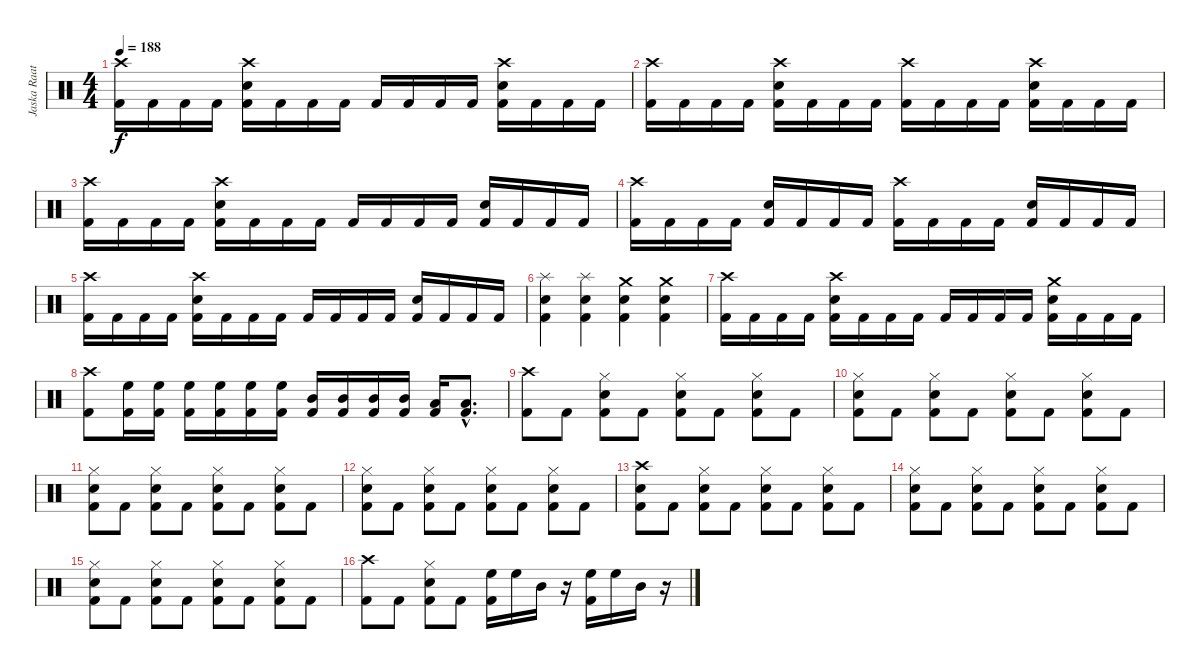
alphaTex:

\track ("Jaska Raatikainen" "Jaska Raat") {instrument percussion}
\staff {score}
\articulation defaults
\ts (4 4)
\tempo 188
\clef neutral
\ks c
("Crash high (hit)" "Kick (hit) 2").16{dy f} "Kick (hit) 2".16 "Kick (hit) 2".16 "Kick (hit) 2".16 ("Crash high (hit)" "Electric Snare (hit)" "Kick (hit) 2").16 "Kick (hit) 2".16 "Kick (hit) 2".16 "Kick (hit) 2".16 "Kick (hit) 2".16 "Kick (hit) 2".16 "Kick (hit) 2".16 "Kick (hit) 2".16 ("Crash high (hit)" "Electric Snare (hit)" "Kick (hit) 2").16 "Kick (hit) 2".16 "Kick (hit) 2".16 "Kick (hit) 2".16 |
("Crash high (hit)" "Kick (hit) 2").16 "Kick (hit) 2".16 "Kick (hit) 2".16 "Kick (hit) 2".16 ("Crash high (hit)" "Electric Snare (hit)" "Kick (hit) 2").16 "Kick (hit) 2".16 "Kick (hit) 2".16 "Kick (hit) 2".16 ("Crash high (hit)" "Kick (hit) 2").16 "Kick (hit) 2".16 "Kick (hit) 2".16 "Kick (hit) 2".16 ("Crash high (hit)" "Electric Snare (hit)" "Kick (hit) 2").16 "Kick (hit) 2".16 "Kick (hit) 2".16 "Kick (hit) 2".16 |
("Crash high (hit)" "Kick (hit) 2").16 "Kick (hit) 2".16 "Kick (hit) 2".16 "Kick (hit) 2".16 ("Crash high (hit)" "Electric Snare (hit)" "Kick (hit) 2").16 "Kick (hit) 2".16 "Kick (hit) 2".16 "Kick (hit) 2".16 "Kick (hit) 2".16 "Kick (hit) 2".16 "Kick (hit) 2".16 "Kick (hit) 2".16 ("Electric Snare (hit)" "Kick (hit) 2").16 "Kick (hit) 2".16 "Kick (hit) 2".16 "Kick (hit) 2".16 |
("Crash high (hit)" "Kick (hit) 2").16 "Kick (hit) 2".16 "Kick (hit) 2".16 "Kick (hit) 2".16 ("Electric Snare (hit)" "Kick (hit) 2").16 "Kick (hit) 2".16 "Kick (hit) 2".16 "Kick (hit) 2".16 ("Crash high (hit)" "Kick (hit) 2").16 "Kick (hit) 2".16 "Kick (hit) 2".16 "Kick (hit) 2".16 ("Electric Snare (hit)" "Kick (hit) 2").16 "Kick (hit) 2".16 "Kick (hit) 2".16 "Kick (hit) 2".16 |
("Crash high (hit)" "Kick (hit) 2").16 "Kick (hit) 2".16 "Kick (hit) 2".16 "Kick (hit) 2".16 ("Crash high (hit)" "Electric Snare (hit)" "Kick (hit) 2").16 "Kick (hit) 2".16 "Kick (hit) 2".16 "Kick (hit) 2".16 "Kick (hit) 2".16 "Kick (hit) 2".16 "Kick (hit) 2".16 "Kick (hit) 2".16 ("Electric Snare (hit)" "Kick (hit) 2").16 "Kick (hit) 2".16 "Kick (hit) 2".16 "Kick (hit) 2".16 |
("Splash (hit)" "Electric Snare (hit)" "Kick (hit) 2").4 ("Splash (hit)" "Electric Snare (hit)" "Kick (hit) 2").4 ("Crash medium (hit)" "Electric Snare (hit)" "Kick (hit) 2").4 ("Crash medium (hit)" "Electric Snare (hit)" "Kick (hit) 2").4 |
("Crash high (hit)" "Kick (hit) 2").16 "Kick (hit) 2".16 "Kick (hit) 2".16 "Kick (hit) 2".16 ("Crash high (hit)" "Electric Snare (hit)" "Kick (hit) 2").16 "Kick (hit) 2".16 "Kick (hit) 2".16 "Kick (hit) 2".16 "Kick (hit) 2".16 "Kick (hit) 2".16 "Kick (hit) 2".16 "Kick (hit) 2".16 ("Crash medium (hit)" "Electric Snare (hit)" "Kick (hit) 2").16 "Kick (hit) 2".16 "Kick (hit) 2".16 "Kick (hit) 2".16 |
("Crash high (hit)" "Kick (hit) 2").8 ("High Floor Tom (hit)" "Kick (hit) 2").16 ("High Floor Tom (hit)" "Kick (hit) 2").16 ("High Floor Tom (hit)" "Kick (hit) 2").16 ("High Floor Tom (hit)" "Kick (hit) 2").16 ("High Floor Tom (hit)" "Kick (hit) 2").16 ("High Floor Tom (hit)" "Kick (hit) 2").16 ("Mid Tom (hit)" "Kick (hit) 2").16 ("Mid Tom (hit)" "Kick (hit) 2").16 ("Mid Tom (hit)" "Kick (hit) 2").16 ("Mid Tom (hit)" "Kick (hit) 2").16 ("Low Tom (hit)" "Kick (hit) 2").16 ("Low Tom (hit)"{hac} "Kick (hit) 2"{hac}).8{d} |
("Crash high (hit)" "Kick (hit) 2").8 "Kick (hit) 2".8 ("Hi-Hat (closed)" "Electric Snare (hit)" "Kick (hit) 2").8 "Kick (hit) 2".8 ("Hi-Hat (closed)" "Electric Snare (hit)" "Kick (hit) 2").8 "Kick (hit) 2".8 ("Hi-Hat (closed)" "Electric Snare (hit)" "Kick (hit) 2").8 "Kick (hit) 2".8 |
("Hi-Hat (closed)" "Electric Snare (hit)" "Kick (hit) 2").8 "Kick (hit) 2".8 ("Hi-Hat (closed)" "Electric Snare (hit)" "Kick (hit) 2").8 "Kick (hit) 2".8 ("Hi-Hat (closed)" "Electric Snare (hit)" "Kick (hit) 2").8 "Kick (hit) 2".8 ("Hi-Hat (closed)" "Electric Snare (hit)" "Kick (hit) 2").8 "Kick (hit) 2".8 |
("Hi-Hat (closed)" "Electric Snare (hit)" "Kick (hit) 2").8 "Kick (hit) 2".8 ("Hi-Hat (closed)" "Electric Snare (hit)" "Kick (hit) 2").8 "Kick (hit) 2".8 ("Hi-Hat (closed)" "Electric Snare (hit)" "Kick (hit) 2").8 "Kick (hit) 2".8 ("Hi-Hat (closed)" "Electric Snare (hit)" "Kick (hit) 2").8 "Kick (hit) 2".8 |
("Hi-Hat (closed)" "Electric Snare (hit)" "Kick (hit) 2").8 "Kick (hit) 2".8 ("Hi-Hat (closed)" "Electric Snare (hit)" "Kick (hit) 2").8 "Kick (hit) 2".8 ("Hi-Hat (closed)" "Electric Snare (hit)" "Kick (hit) 2").8 "Kick (hit) 2".8 ("Hi-Hat (closed)" "Electric Snare (hit)" "Kick (hit) 2").8 "Kick (hit) 2".8 |
("Crash high (hit)" "Electric Snare (hit)" "Kick (hit) 2").8 "Kick (hit) 2".8 ("Hi-Hat (closed)" "Electric Snare (hit)" "Kick (hit) 2").8 "Kick (hit) 2".8 ("Hi-Hat (closed)" "Electric Snare (hit)" "Kick (hit) 2").8 "Kick (hit) 2".8 ("Hi-Hat (closed)" "Electric Snare (hit)" "Kick (hit) 2").8 "Kick (hit) 2".8 |
("Hi-Hat (closed)" "Electric Snare (hit)" "Kick (hit) 2").8 "Kick (hit) 2".8 ("Hi-Hat (closed)" "Electric Snare (hit)" "Kick (hit) 2").8 "Kick (hit) 2".8 ("Hi-Hat (closed)" "Electric Snare (hit)" "Kick (hit) 2").8 "Kick (hit) 2".8 ("Hi-Hat (closed)" "Electric Snare (hit)" "Kick (hit) 2").8 "Kick (hit) 2".8 |
("Hi-Hat (closed)" "Electric Snare (hit)" "Kick (hit) 2").8 "Kick (hit) 2".8 ("Hi-Hat (closed)" "Electric Snare (hit)" "Kick (hit) 2").8 "Kick (hit) 2".8 ("Hi-Hat (closed)" "Electric Snare (hit)" "Kick (hit) 2").8 "Kick (hit) 2".8 ("Hi-Hat (closed)" "Electric Snare (hit)" "Kick (hit) 2").8 "Kick (hit) 2".8 |
("Crash high (hit)" "Kick (hit) 2").8 "Kick (hit) 2".8 ("Hi-Hat (closed)" "Electric Snare (hit)" "Kick (hit) 2").8 "Kick (hit) 2".8 ("High Floor Tom (hit)" "Kick (hit) 2").16 "High Floor Tom (hit)".16 "Mid Tom (hit)".16 r.16 ("High Floor Tom (hit)" "Kick (hit) 2").16 "High Floor Tom (hit)".16 "Mid Tom (hit)".16 r.16
